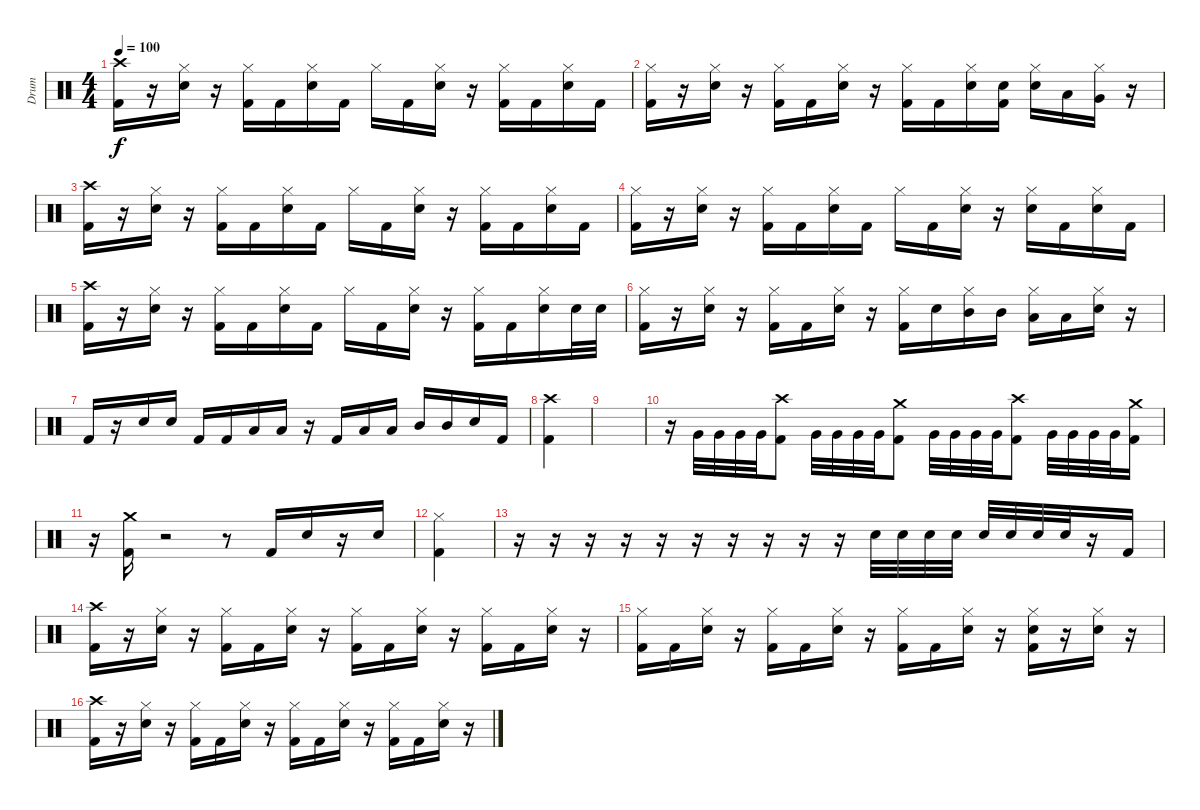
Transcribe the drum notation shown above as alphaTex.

\track ("Drum" "Drum") {instrument percussion}
\staff {score}
\articulation defaults
\ts (4 4)
\tempo 100
\clef neutral
\ks c
("Crash high (hit)" "Kick (hit) 2").16{dy f} r.16 ("Hi-Hat (closed)" "Electric Snare (hit)").16 r.16 ("Hi-Hat (closed)" "Kick (hit) 2").16 "Kick (hit) 2".16 ("Hi-Hat (closed)" "Electric Snare (hit)").16 "Kick (hit) 2".16 "Hi-Hat (closed)".16 "Kick (hit) 2".16 ("Hi-Hat (closed)" "Electric Snare (hit)").16 r.16 ("Hi-Hat (closed)" "Kick (hit) 2").16 "Kick (hit) 2".16 ("Hi-Hat (closed)" "Electric Snare (hit)").16 "Kick (hit) 2".16 |
("Hi-Hat (closed)" "Kick (hit) 2").16 r.16 ("Hi-Hat (closed)" "Electric Snare (hit)").16 r.16 ("Hi-Hat (closed)" "Kick (hit) 2").16 "Kick (hit) 2".16 ("Hi-Hat (closed)" "Electric Snare (hit)").16 r.16 ("Hi-Hat (closed)" "Kick (hit) 2").16 "Kick (hit) 2".16 ("Hi-Hat (closed)" "Electric Snare (hit)").16 ("Electric Snare (hit)" "Kick (hit) 2").16 ("Hi-Hat (closed)" "Electric Snare (hit)").16 "Low Tom (hit)".16 ("Hi-Hat (closed)" "Very Low Tom (hit)").16 r.16 |
("Crash high (hit)" "Kick (hit) 2").16 r.16 ("Hi-Hat (closed)" "Electric Snare (hit)").16 r.16 ("Hi-Hat (closed)" "Kick (hit) 2").16 "Kick (hit) 2".16 ("Hi-Hat (closed)" "Electric Snare (hit)").16 "Kick (hit) 2".16 "Hi-Hat (closed)".16 "Kick (hit) 2".16 ("Hi-Hat (closed)" "Electric Snare (hit)").16 r.16 ("Hi-Hat (closed)" "Kick (hit) 2").16 "Kick (hit) 2".16 ("Hi-Hat (closed)" "Electric Snare (hit)").16 "Kick (hit) 2".16 |
("Hi-Hat (closed)" "Kick (hit) 2").16 r.16 ("Hi-Hat (closed)" "Electric Snare (hit)").16 r.16 ("Hi-Hat (closed)" "Kick (hit) 2").16 "Kick (hit) 2".16 ("Hi-Hat (closed)" "Electric Snare (hit)").16 "Kick (hit) 2".16 "Hi-Hat (closed)".16 "Kick (hit) 2".16 ("Hi-Hat (closed)" "Electric Snare (hit)").16 r.16 ("Hi-Hat (closed)" "Electric Snare (hit)").16 "Kick (hit) 2".16 ("Hi-Hat (closed)" "Electric Snare (hit)").16 "Kick (hit) 2".16 |
("Crash high (hit)" "Kick (hit) 2").16 r.16 ("Hi-Hat (closed)" "Electric Snare (hit)").16 r.16 ("Hi-Hat (closed)" "Kick (hit) 2").16 "Kick (hit) 2".16 ("Hi-Hat (closed)" "Electric Snare (hit)").16 "Kick (hit) 2".16 "Hi-Hat (closed)".16 "Kick (hit) 2".16 ("Hi-Hat (closed)" "Electric Snare (hit)").16 r.16 ("Hi-Hat (closed)" "Kick (hit) 2").16 "Kick (hit) 2".16 ("Hi-Hat (closed)" "Electric Snare (hit)").16 "Electric Snare (hit)".32 "Electric Snare (hit)".32 |
("Hi-Hat (closed)" "Kick (hit) 2").16 r.16 ("Hi-Hat (closed)" "Electric Snare (hit)").16 r.16 ("Hi-Hat (closed)" "Kick (hit) 2").16 "Kick (hit) 2".16 ("Hi-Hat (closed)" "Electric Snare (hit)").16 r.16 ("Hi-Hat (closed)" "Kick (hit) 2").16 "Electric Snare (hit)".16 ("Hi-Hat (closed)" "Mid Tom (hit)").16 "Mid Tom (hit)".16 ("Hi-Hat (closed)" "Low Tom (hit)").16 "Low Tom (hit)".16 ("Hi-Hat (closed)" "Electric Snare (hit)").16 r.16 |
"Kick (hit) 2".16 r.16 "Electric Snare (hit)".16 "Electric Snare (hit)".16 "Kick (hit) 2".16 "Kick (hit) 2".16 "Low Tom (hit)".16 "Low Tom (hit)".16 r.16 "Kick (hit) 2".16 "Low Tom (hit)".16 "Low Tom (hit)".16 "Mid Tom (hit)".16 "Mid Tom (hit)".16 "Electric Snare (hit)".16 "Kick (hit) 2".16 |
("Crash high (hit)" "Kick (hit) 2").4 |
|
r.16 "Very Low Tom (hit)".32 "Very Low Tom (hit)".32 "Very Low Tom (hit)".32 "Very Low Tom (hit)".32 ("Crash high (hit)" "Kick (hit) 2").8 "Very Low Tom (hit)".32 "Very Low Tom (hit)".32 "Very Low Tom (hit)".32 "Very Low Tom (hit)".32 ("Crash medium (hit)" "Kick (hit) 2").8 "Very Low Tom (hit)".32 "Very Low Tom (hit)".32 "Very Low Tom (hit)".32 "Very Low Tom (hit)".32 ("Crash high (hit)" "Kick (hit) 2").8 "Very Low Tom (hit)".32 "Very Low Tom (hit)".32 "Very Low Tom (hit)".32 "Very Low Tom (hit)".32 ("Crash medium (hit)" "Kick (hit) 2").16 |
r.16 ("Crash medium (hit)" "Kick (hit) 2").16 r.2 r.8 "Kick (hit) 2".16 "Electric Snare (hit)".16 r.16 "Electric Snare (hit)".16 |
("Hi-Hat (closed)" "Kick (hit) 2").4 |
r.16 r.16 r.16 r.16 r.16 r.16 r.16 r.16 r.16 r.16 "Electric Snare (hit)".32 "Electric Snare (hit)".32 "Electric Snare (hit)".32 "Electric Snare (hit)".32 "Electric Snare (hit)".32 "Electric Snare (hit)".32 "Electric Snare (hit)".32 "Electric Snare (hit)".32 r.16 "Kick (hit) 2".16 |
("Crash high (hit)" "Kick (hit) 2").16 r.16 ("Hi-Hat (closed)" "Electric Snare (hit)").16 r.16 ("Hi-Hat (closed)" "Kick (hit) 2").16 "Kick (hit) 2".16 ("Hi-Hat (closed)" "Electric Snare (hit)").16 r.16 ("Hi-Hat (closed)" "Kick (hit) 2").16 "Kick (hit) 2".16 ("Hi-Hat (closed)" "Electric Snare (hit)").16 r.16 ("Hi-Hat (closed)" "Kick (hit) 2").16 "Kick (hit) 2".16 ("Hi-Hat (closed)" "Electric Snare (hit)").16 r.16 |
("Hi-Hat (closed)" "Kick (hit) 2").16 "Kick (hit) 2".16 ("Hi-Hat (closed)" "Electric Snare (hit)").16 r.16 ("Hi-Hat (closed)" "Kick (hit) 2").16 "Kick (hit) 2".16 ("Hi-Hat (closed)" "Electric Snare (hit)").16 r.16 ("Hi-Hat (closed)" "Kick (hit) 2").16 "Kick (hit) 2".16 ("Hi-Hat (closed)" "Electric Snare (hit)").16 r.16 ("Hi-Hat (closed)" "Electric Snare (hit)" "Kick (hit) 2").16 r.16 ("Hi-Hat (closed)" "Electric Snare (hit)").16 r.16 |
("Crash high (hit)" "Kick (hit) 2").16 r.16 ("Hi-Hat (closed)" "Electric Snare (hit)").16 r.16 ("Hi-Hat (closed)" "Kick (hit) 2").16 "Kick (hit) 2".16 ("Hi-Hat (closed)" "Electric Snare (hit)").16 r.16 ("Hi-Hat (closed)" "Kick (hit) 2").16 "Kick (hit) 2".16 ("Hi-Hat (closed)" "Electric Snare (hit)").16 r.16 ("Hi-Hat (closed)" "Kick (hit) 2").16 "Kick (hit) 2".16 ("Hi-Hat (closed)" "Electric Snare (hit)").16 r.16
